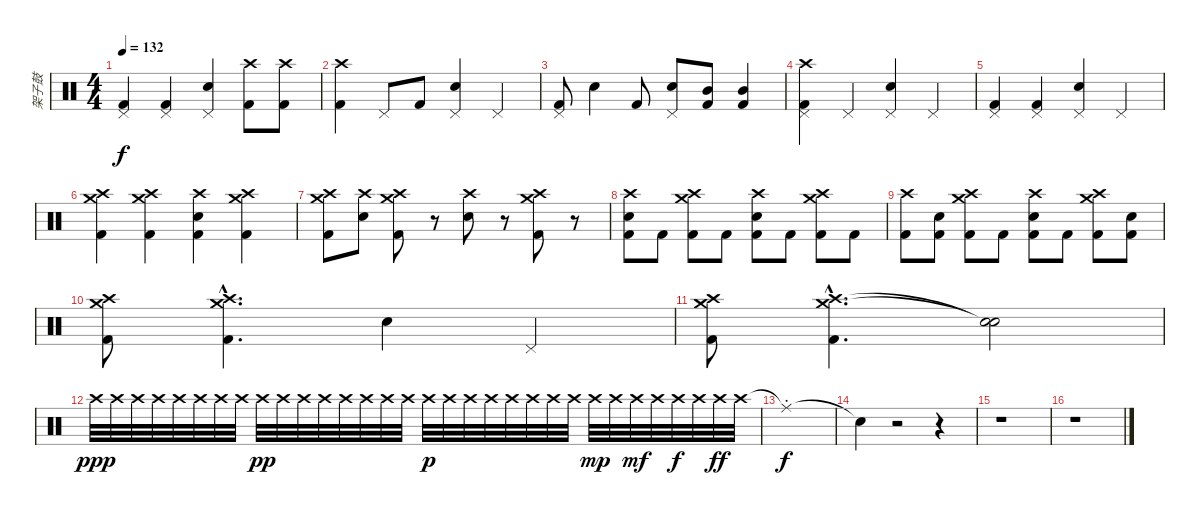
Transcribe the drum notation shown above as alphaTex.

\track ("架子鼓" "架子鼓") {instrument percussion}
\staff {score}
\articulation defaults
\ts (4 4)
\tempo 132
\clef neutral
\ks c
("Pedal Hi-Hat (hit)" "Kick (hit) 2").4{dy f} ("Pedal Hi-Hat (hit)" "Kick (hit) 2").4 ("Pedal Hi-Hat (hit)" "Electric Snare (hit)").4 ("Crash high (hit)" "Kick (hit) 2").8 ("Crash high (hit)" "Kick (hit) 2").8 |
("Crash high (hit)" "Kick (hit) 2").4 "Pedal Hi-Hat (hit)".8 "Kick (hit) 2".8 ("Pedal Hi-Hat (hit)" "Electric Snare (hit)").4 "Pedal Hi-Hat (hit)".4 |
("Pedal Hi-Hat (hit)" "Kick (hit) 2").8 "Electric Snare (hit)".4 "Kick (hit) 2".8 ("Electric Snare (hit)" "Pedal Hi-Hat (hit)").8 ("Mid Tom (hit)" "Kick (hit) 2").8 ("Mid Tom (hit)" "Kick (hit) 2").4 |
("Crash high (hit)" "Pedal Hi-Hat (hit)" "Kick (hit) 2").4 "Pedal Hi-Hat (hit)".4 ("Electric Snare (hit)" "Pedal Hi-Hat (hit)").4 "Pedal Hi-Hat (hit)".4 |
("Pedal Hi-Hat (hit)" "Kick (hit) 2").4 ("Pedal Hi-Hat (hit)" "Kick (hit) 2").4 ("Electric Snare (hit)" "Pedal Hi-Hat (hit)").4 "Pedal Hi-Hat (hit)".4 |
("Crash medium (hit)" "Crash high (hit)" "Kick (hit) 2").4 ("Crash medium (hit)" "Crash high (hit)" "Kick (hit) 2").4 ("Crash high (hit)" "Electric Snare (hit)" "Kick (hit) 2").4 ("Crash medium (hit)" "Crash high (hit)" "Kick (hit) 2").4 |
("Crash medium (hit)" "Crash high (hit)" "Kick (hit) 2").8 ("Crash high (hit)" "Electric Snare (hit)").8 ("Crash medium (hit)" "Crash high (hit)" "Kick (hit) 2").8 r.8 ("Crash high (hit)" "Electric Snare (hit)").8 r.8 ("Crash medium (hit)" "Crash high (hit)" "Kick (hit) 2").8 r.8 |
("Crash high (hit)" "Electric Snare (hit)" "Kick (hit) 2").8 "Kick (hit) 2".8 ("Crash medium (hit)" "Crash high (hit)" "Kick (hit) 2").8 "Kick (hit) 2".8 ("Crash high (hit)" "Electric Snare (hit)" "Kick (hit) 2").8 "Kick (hit) 2".8 ("Crash medium (hit)" "Crash high (hit)" "Kick (hit) 2").8 "Kick (hit) 2".8 |
("Crash high (hit)" "Kick (hit) 2").8 ("Electric Snare (hit)" "Kick (hit) 2").8 ("Crash medium (hit)" "Crash high (hit)" "Kick (hit) 2").8 "Kick (hit) 2".8 ("Crash high (hit)" "Electric Snare (hit)" "Kick (hit) 2").8 "Kick (hit) 2".8 ("Crash medium (hit)" "Crash high (hit)" "Kick (hit) 2").8 ("Electric Snare (hit)" "Kick (hit) 2").8 |
("Crash medium (hit)" "Crash high (hit)" "Kick (hit) 2").8 ("Crash medium (hit)"{hac} "Crash high (hit)"{hac} "Kick (hit) 2"{hac}).4{d} "Electric Snare (hit)".4 "Pedal Hi-Hat (hit)".4 |
("Crash medium (hit)" "Crash high (hit)" "Kick (hit) 2").8 ("Crash medium (hit)"{hac} "Crash high (hit)"{hac} "Kick (hit) 2"{hac}).4{d} ("Snare (hit)"{t} "Snare (hit)"{t}).2 |
"Crash high (hit)".32{dy ppp} "Crash high (hit)".32 "Crash high (hit)".32 "Crash high (hit)".32 "Crash high (hit)".32 "Crash high (hit)".32 "Crash high (hit)".32 "Crash high (hit)".32 "Crash high (hit)".32{dy pp} "Crash high (hit)".32 "Crash high (hit)".32 "Crash high (hit)".32 "Crash high (hit)".32 "Crash high (hit)".32 "Crash high (hit)".32 "Crash high (hit)".32 "Crash high (hit)".32{dy p} "Crash high (hit)".32 "Crash high (hit)".32 "Crash high (hit)".32 "Crash high (hit)".32 "Crash high (hit)".32 "Crash high (hit)".32 "Crash high (hit)".32 "Crash high (hit)".32{dy mp} "Crash high (hit)".32 "Crash high (hit)".32{dy mf} "Crash high (hit)".32 "Crash high (hit)".32{dy f} "Crash high (hit)".32 "Crash high (hit)".32{dy ff} "Crash high (hit)".32 |
"Ride (choke)"{t}.1{dy f} |
"Snare (hit)"{t}.4 r.2 r.4 |
r.1 |
r.1
